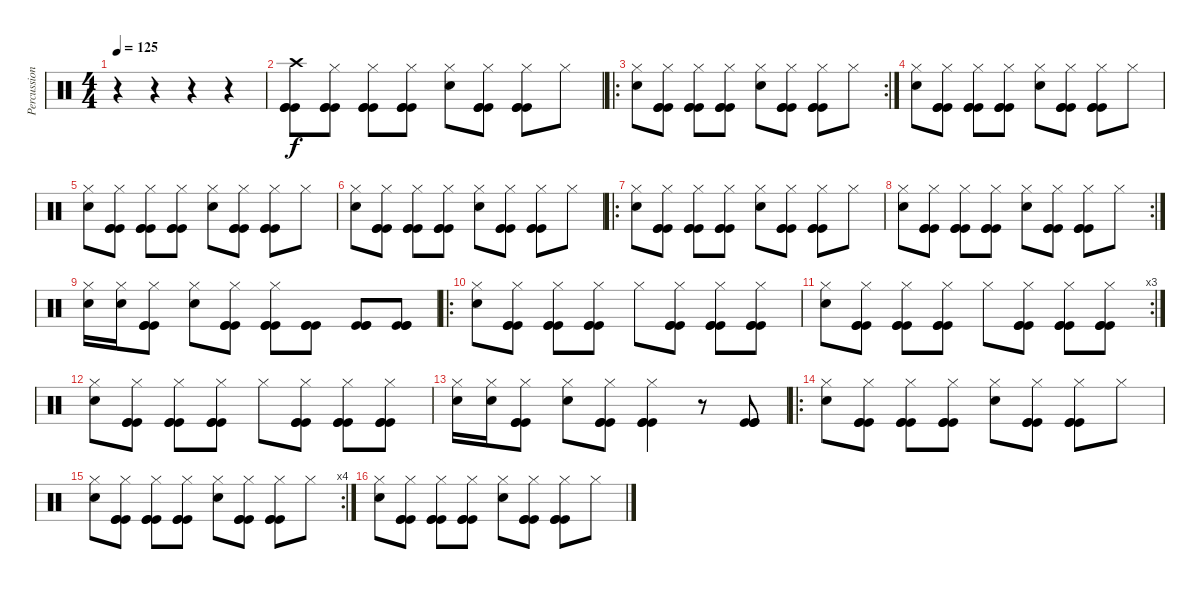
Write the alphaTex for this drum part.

\track ("Percussion" "Percussion") {instrument percussion}
\staff {score}
\articulation defaults
\ts (4 4)
\tempo 125
\clef neutral
\ks c
r.4{dy f} r.4 r.4 r.4 |
("Kick (hit)" "Kick (hit)" "Kick (hit)" "Crash high (hit)").8 ("Kick (hit)" "Kick (hit)" "Kick (hit)" "Hi-Hat (closed)").8 ("Kick (hit)" "Kick (hit)" "Kick (hit)" "Hi-Hat (closed)").8 ("Kick (hit)" "Kick (hit)" "Kick (hit)" "Hi-Hat (closed)").8 ("Electric Snare (hit)" "Hi-Hat (closed)").8 ("Kick (hit)" "Kick (hit)" "Kick (hit)" "Hi-Hat (closed)").8 ("Kick (hit)" "Kick (hit)" "Kick (hit)" "Hi-Hat (closed)").8 "Hi-Hat (closed)".8 |
\ro
\rc 2
("Electric Snare (hit)" "Hi-Hat (closed)").8 ("Kick (hit)" "Kick (hit)" "Kick (hit)" "Hi-Hat (closed)").8 ("Kick (hit)" "Kick (hit)" "Kick (hit)" "Hi-Hat (closed)").8 ("Kick (hit)" "Kick (hit)" "Kick (hit)" "Hi-Hat (closed)").8 ("Electric Snare (hit)" "Hi-Hat (closed)").8 ("Kick (hit)" "Kick (hit)" "Kick (hit)" "Hi-Hat (closed)").8 ("Kick (hit)" "Kick (hit)" "Kick (hit)" "Hi-Hat (closed)").8 "Hi-Hat (closed)".8 |
("Electric Snare (hit)" "Hi-Hat (closed)").8 ("Kick (hit)" "Kick (hit)" "Kick (hit)" "Hi-Hat (closed)").8 ("Kick (hit)" "Kick (hit)" "Kick (hit)" "Hi-Hat (closed)").8 ("Kick (hit)" "Kick (hit)" "Kick (hit)" "Hi-Hat (closed)").8 ("Electric Snare (hit)" "Hi-Hat (closed)").8 ("Kick (hit)" "Kick (hit)" "Kick (hit)" "Hi-Hat (closed)").8 ("Kick (hit)" "Kick (hit)" "Kick (hit)" "Hi-Hat (closed)").8 "Hi-Hat (closed)".8 |
("Electric Snare (hit)" "Hi-Hat (closed)").8 ("Kick (hit)" "Kick (hit)" "Kick (hit)" "Hi-Hat (closed)").8 ("Kick (hit)" "Kick (hit)" "Kick (hit)" "Hi-Hat (closed)").8 ("Kick (hit)" "Kick (hit)" "Kick (hit)" "Hi-Hat (closed)").8 ("Electric Snare (hit)" "Hi-Hat (closed)").8 ("Kick (hit)" "Kick (hit)" "Kick (hit)" "Hi-Hat (closed)").8 ("Kick (hit)" "Kick (hit)" "Kick (hit)" "Hi-Hat (closed)").8 "Hi-Hat (closed)".8 |
("Electric Snare (hit)" "Hi-Hat (closed)").8 ("Kick (hit)" "Kick (hit)" "Kick (hit)" "Hi-Hat (closed)").8 ("Kick (hit)" "Kick (hit)" "Kick (hit)" "Hi-Hat (closed)").8 ("Kick (hit)" "Kick (hit)" "Kick (hit)" "Hi-Hat (closed)").8 ("Electric Snare (hit)" "Hi-Hat (closed)").8 ("Kick (hit)" "Kick (hit)" "Kick (hit)" "Hi-Hat (closed)").8 ("Kick (hit)" "Kick (hit)" "Kick (hit)" "Hi-Hat (closed)").8 "Hi-Hat (closed)".8 |
\ro
("Electric Snare (hit)" "Hi-Hat (closed)").8 ("Kick (hit)" "Kick (hit)" "Kick (hit)" "Hi-Hat (closed)").8 ("Kick (hit)" "Kick (hit)" "Kick (hit)" "Hi-Hat (closed)").8 ("Kick (hit)" "Kick (hit)" "Kick (hit)" "Hi-Hat (closed)").8 ("Electric Snare (hit)" "Hi-Hat (closed)").8 ("Kick (hit)" "Kick (hit)" "Kick (hit)" "Hi-Hat (closed)").8 ("Kick (hit)" "Kick (hit)" "Kick (hit)" "Hi-Hat (closed)").8 "Hi-Hat (closed)".8 |
\rc 2
("Electric Snare (hit)" "Hi-Hat (closed)").8 ("Kick (hit)" "Kick (hit)" "Kick (hit)" "Hi-Hat (closed)").8 ("Kick (hit)" "Kick (hit)" "Kick (hit)" "Hi-Hat (closed)").8 ("Kick (hit)" "Kick (hit)" "Kick (hit)" "Hi-Hat (closed)").8 ("Electric Snare (hit)" "Hi-Hat (closed)").8 ("Kick (hit)" "Kick (hit)" "Kick (hit)" "Hi-Hat (closed)").8 ("Kick (hit)" "Kick (hit)" "Kick (hit)" "Hi-Hat (closed)").8 "Hi-Hat (closed)".8 |
("Electric Snare (hit)" "Hi-Hat (closed)").16 ("Electric Snare (hit)" "Hi-Hat (closed)").16 ("Kick (hit)" "Kick (hit)" "Kick (hit)" "Hi-Hat (closed)").8 ("Electric Snare (hit)" "Hi-Hat (closed)").8 ("Kick (hit)" "Kick (hit)" "Kick (hit)" "Hi-Hat (closed)").8 ("Kick (hit)" "Kick (hit)" "Kick (hit)" "Hi-Hat (closed)").8 ("Kick (hit)" "Kick (hit)" "Kick (hit)").8 ("Kick (hit)" "Kick (hit)" "Kick (hit)").8 ("Kick (hit)" "Kick (hit)" "Kick (hit)").8 |
\ro
("Electric Snare (hit)" "Hi-Hat (closed)").8 ("Kick (hit)" "Kick (hit)" "Kick (hit)" "Hi-Hat (closed)").8 ("Kick (hit)" "Kick (hit)" "Kick (hit)" "Hi-Hat (closed)").8 ("Kick (hit)" "Kick (hit)" "Kick (hit)" "Hi-Hat (closed)").8 "Hi-Hat (closed)".8 ("Kick (hit)" "Kick (hit)" "Kick (hit)" "Hi-Hat (closed)").8 ("Kick (hit)" "Kick (hit)" "Kick (hit)" "Hi-Hat (closed)").8 ("Kick (hit)" "Kick (hit)" "Kick (hit)" "Hi-Hat (closed)").8 |
\rc 3
("Electric Snare (hit)" "Hi-Hat (closed)").8 ("Kick (hit)" "Kick (hit)" "Kick (hit)" "Hi-Hat (closed)").8 ("Kick (hit)" "Kick (hit)" "Kick (hit)" "Hi-Hat (closed)").8 ("Kick (hit)" "Kick (hit)" "Kick (hit)" "Hi-Hat (closed)").8 "Hi-Hat (closed)".8 ("Kick (hit)" "Kick (hit)" "Kick (hit)" "Hi-Hat (closed)").8 ("Kick (hit)" "Kick (hit)" "Kick (hit)" "Hi-Hat (closed)").8 ("Kick (hit)" "Kick (hit)" "Kick (hit)" "Hi-Hat (closed)").8 |
("Electric Snare (hit)" "Hi-Hat (closed)").8 ("Kick (hit)" "Kick (hit)" "Kick (hit)" "Hi-Hat (closed)").8 ("Kick (hit)" "Kick (hit)" "Kick (hit)" "Hi-Hat (closed)").8 ("Kick (hit)" "Kick (hit)" "Kick (hit)" "Hi-Hat (closed)").8 "Hi-Hat (closed)".8 ("Kick (hit)" "Kick (hit)" "Kick (hit)" "Hi-Hat (closed)").8 ("Kick (hit)" "Kick (hit)" "Kick (hit)" "Hi-Hat (closed)").8 ("Kick (hit)" "Kick (hit)" "Kick (hit)" "Hi-Hat (closed)").8 |
("Electric Snare (hit)" "Hi-Hat (closed)").16 ("Electric Snare (hit)" "Hi-Hat (closed)").16 ("Kick (hit)" "Kick (hit)" "Kick (hit)" "Hi-Hat (closed)").8 ("Electric Snare (hit)" "Hi-Hat (closed)").8 ("Kick (hit)" "Kick (hit)" "Kick (hit)" "Hi-Hat (closed)").8 ("Kick (hit)" "Kick (hit)" "Kick (hit)" "Hi-Hat (closed)").4 r.8 ("Kick (hit)" "Kick (hit)" "Kick (hit)").8 |
\ro
("Electric Snare (hit)" "Hi-Hat (closed)").8 ("Kick (hit)" "Kick (hit)" "Kick (hit)" "Hi-Hat (closed)").8 ("Kick (hit)" "Kick (hit)" "Kick (hit)" "Hi-Hat (closed)").8 ("Kick (hit)" "Kick (hit)" "Kick (hit)" "Hi-Hat (closed)").8 ("Electric Snare (hit)" "Hi-Hat (closed)").8 ("Kick (hit)" "Kick (hit)" "Kick (hit)" "Hi-Hat (closed)").8 ("Kick (hit)" "Kick (hit)" "Kick (hit)" "Hi-Hat (closed)").8 "Hi-Hat (closed)".8 |
\rc 4
("Electric Snare (hit)" "Hi-Hat (closed)").8 ("Kick (hit)" "Kick (hit)" "Kick (hit)" "Hi-Hat (closed)").8 ("Kick (hit)" "Kick (hit)" "Kick (hit)" "Hi-Hat (closed)").8 ("Kick (hit)" "Kick (hit)" "Kick (hit)" "Hi-Hat (closed)").8 ("Electric Snare (hit)" "Hi-Hat (closed)").8 ("Kick (hit)" "Kick (hit)" "Kick (hit)" "Hi-Hat (closed)").8 ("Kick (hit)" "Kick (hit)" "Kick (hit)" "Hi-Hat (closed)").8 "Hi-Hat (closed)".8 |
("Electric Snare (hit)" "Hi-Hat (closed)").8 ("Kick (hit)" "Kick (hit)" "Kick (hit)" "Hi-Hat (closed)").8 ("Kick (hit)" "Kick (hit)" "Kick (hit)" "Hi-Hat (closed)").8 ("Kick (hit)" "Kick (hit)" "Kick (hit)" "Hi-Hat (closed)").8 ("Electric Snare (hit)" "Hi-Hat (closed)").8 ("Kick (hit)" "Kick (hit)" "Kick (hit)" "Hi-Hat (closed)").8 ("Kick (hit)" "Kick (hit)" "Kick (hit)" "Hi-Hat (closed)").8 "Hi-Hat (closed)".8
